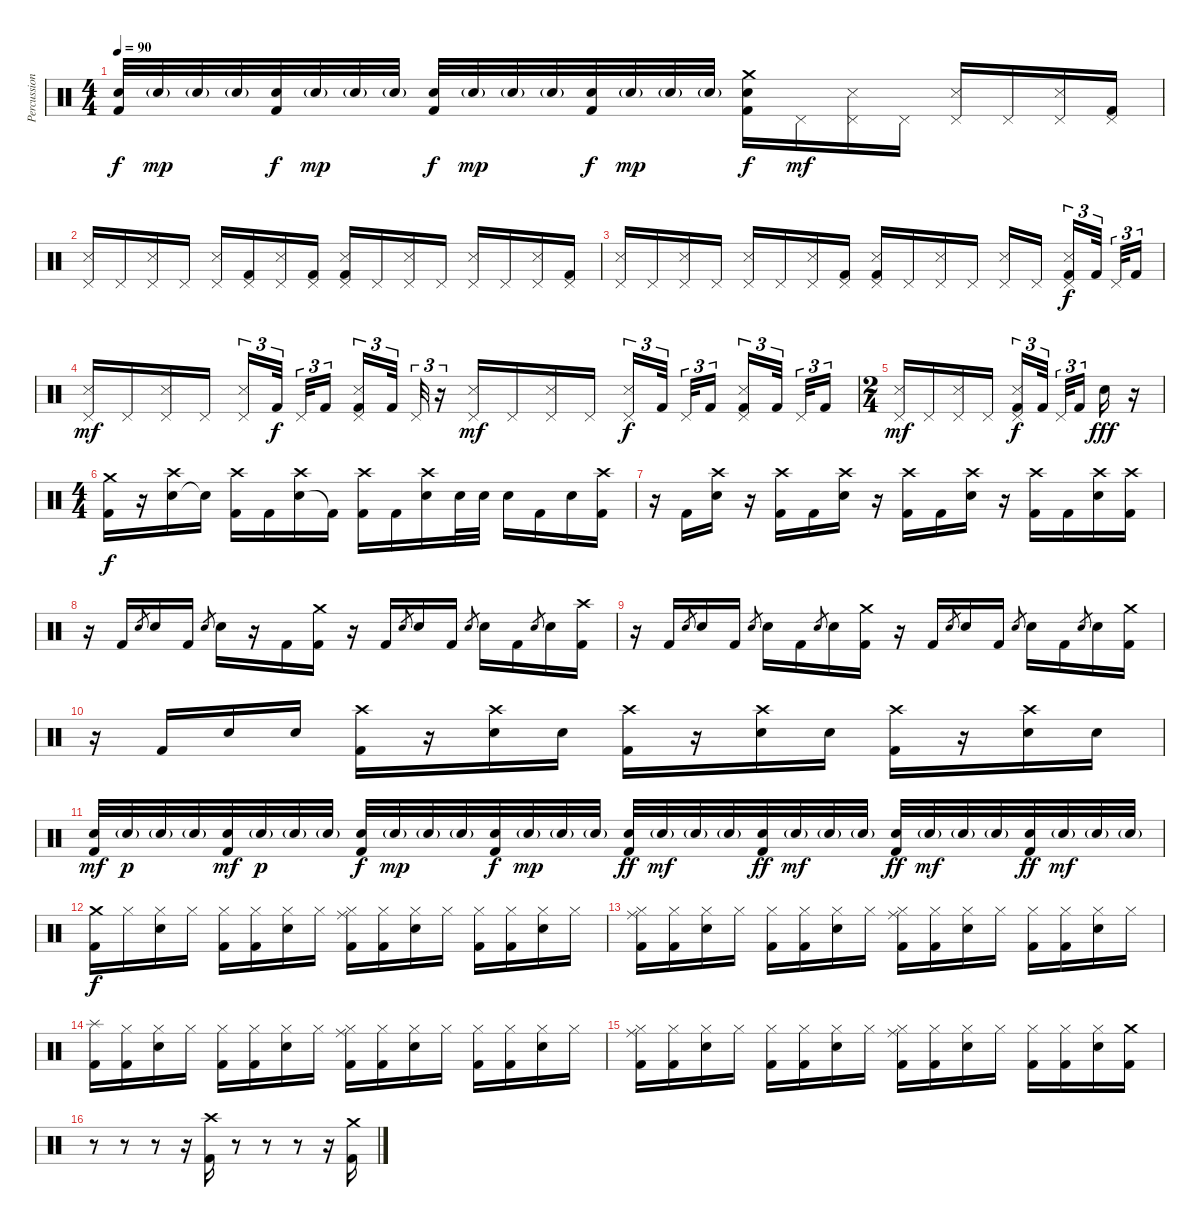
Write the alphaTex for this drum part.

\track ("Percussions" "Percussion") {instrument percussion}
\staff {score}
\articulation defaults
\ts (4 4)
\tempo 90
\clef neutral
\ks c
("Electric Snare (hit)" "Kick (hit) 2").32{dy f} "Electric Snare (hit)"{g}.32{dy mp} "Electric Snare (hit)"{g}.32 "Electric Snare (hit)"{g}.32 ("Electric Snare (hit)" "Kick (hit) 2").32{dy f} "Electric Snare (hit)"{g}.32{dy mp} "Electric Snare (hit)"{g}.32 "Electric Snare (hit)"{g}.32 ("Electric Snare (hit)" "Kick (hit) 2").32{dy f} "Electric Snare (hit)"{g}.32{dy mp} "Electric Snare (hit)"{g}.32 "Electric Snare (hit)"{g}.32 ("Electric Snare (hit)" "Kick (hit) 2").32{dy f} "Electric Snare (hit)"{g}.32{dy mp} "Electric Snare (hit)"{g}.32 "Electric Snare (hit)"{g}.32 ("Electric Snare (hit)" "Kick (hit) 2" "Crash medium (hit)").16{dy f} "Pedal Hi-Hat (hit)".16{dy mf} ("Pedal Hi-Hat (hit)" "Snare (side stick) 3").16 "Pedal Hi-Hat (hit)".16 ("Pedal Hi-Hat (hit)" "Snare (side stick) 3").16 "Pedal Hi-Hat (hit)".16 ("Pedal Hi-Hat (hit)" "Snare (side stick) 3").16 ("Kick (hit) 2" "Pedal Hi-Hat (hit)").16 |
("Pedal Hi-Hat (hit)" "Snare (side stick) 3").16 "Pedal Hi-Hat (hit)".16 ("Pedal Hi-Hat (hit)" "Snare (side stick) 3").16 "Pedal Hi-Hat (hit)".16 ("Pedal Hi-Hat (hit)" "Snare (side stick) 3").16 ("Kick (hit) 2" "Pedal Hi-Hat (hit)").16 ("Pedal Hi-Hat (hit)" "Snare (side stick) 3").16 ("Kick (hit) 2" "Pedal Hi-Hat (hit)").16 ("Kick (hit) 2" "Pedal Hi-Hat (hit)" "Snare (side stick) 3").16 "Pedal Hi-Hat (hit)".16 ("Pedal Hi-Hat (hit)" "Snare (side stick) 3").16 "Pedal Hi-Hat (hit)".16 ("Pedal Hi-Hat (hit)" "Snare (side stick) 3").16 "Pedal Hi-Hat (hit)".16 ("Pedal Hi-Hat (hit)" "Snare (side stick) 3").16 ("Kick (hit) 2" "Pedal Hi-Hat (hit)").16 |
("Pedal Hi-Hat (hit)" "Snare (side stick) 3").16 "Pedal Hi-Hat (hit)".16 ("Pedal Hi-Hat (hit)" "Snare (side stick) 3").16 "Pedal Hi-Hat (hit)".16 ("Pedal Hi-Hat (hit)" "Snare (side stick) 3").16 "Pedal Hi-Hat (hit)".16 ("Pedal Hi-Hat (hit)" "Snare (side stick) 3").16 ("Kick (hit) 2" "Pedal Hi-Hat (hit)").16 ("Kick (hit) 2" "Pedal Hi-Hat (hit)" "Snare (side stick) 3").16 "Pedal Hi-Hat (hit)".16 ("Pedal Hi-Hat (hit)" "Snare (side stick) 3").16 "Pedal Hi-Hat (hit)".16 ("Pedal Hi-Hat (hit)" "Snare (side stick) 3").16 "Pedal Hi-Hat (hit)".16 ("Kick (hit) 2" "Pedal Hi-Hat (hit)" "Snare (side stick) 3").16{tu (3 2) dy f} "Kick (hit) 2".32{tu (3 2)} "Pedal Hi-Hat (hit)".32{tu (3 2)} "Kick (hit) 2".16{tu (3 2)} |
("Pedal Hi-Hat (hit)" "Snare (side stick) 3").16{dy mf} "Pedal Hi-Hat (hit)".16 ("Pedal Hi-Hat (hit)" "Snare (side stick) 3").16 "Pedal Hi-Hat (hit)".16 ("Pedal Hi-Hat (hit)" "Snare (side stick) 3").16{tu (3 2)} "Kick (hit) 2".32{tu (3 2) dy f} "Pedal Hi-Hat (hit)".32{tu (3 2)} "Kick (hit) 2".16{tu (3 2)} ("Kick (hit) 2" "Pedal Hi-Hat (hit)" "Snare (side stick) 3").16{tu (3 2)} "Kick (hit) 2".32{tu (3 2)} "Pedal Hi-Hat (hit)".32{tu (3 2)} r.16{tu (3 2)} ("Pedal Hi-Hat (hit)" "Snare (side stick) 3").16{dy mf} "Pedal Hi-Hat (hit)".16 ("Pedal Hi-Hat (hit)" "Snare (side stick) 3").16 "Pedal Hi-Hat (hit)".16 ("Pedal Hi-Hat (hit)" "Snare (side stick) 3").16{tu (3 2) dy f} "Kick (hit) 2".32{tu (3 2)} "Pedal Hi-Hat (hit)".32{tu (3 2)} "Kick (hit) 2".16{tu (3 2)} ("Kick (hit) 2" "Pedal Hi-Hat (hit)" "Snare (side stick) 3").16{tu (3 2)} "Kick (hit) 2".32{tu (3 2)} "Pedal Hi-Hat (hit)".32{tu (3 2)} "Kick (hit) 2".16{tu (3 2)} |
\ts (2 4)
("Pedal Hi-Hat (hit)" "Snare (side stick) 3").16{dy mf} "Pedal Hi-Hat (hit)".16 ("Pedal Hi-Hat (hit)" "Snare (side stick) 3").16 "Pedal Hi-Hat (hit)".16 ("Kick (hit) 2" "Pedal Hi-Hat (hit)" "Snare (side stick) 3").16{tu (3 2) dy f} "Kick (hit) 2".32{tu (3 2)} "Pedal Hi-Hat (hit)".32{tu (3 2)} "Kick (hit) 2".16{tu (3 2)} "Electric Snare (hit)".16{dy fff} r.16 |
\ts (4 4)
\section ("" "")
("Kick (hit) 2" "Crash medium (hit)").16{dy f} r.16 ("Electric Snare (hit)" "Crash high (hit)").16 "Snare (hit)"{t}.16 ("Kick (hit) 2" "Crash high (hit)").16 "Kick (hit) 2".16 ("Electric Snare (hit)" "Crash high (hit)").16 "Kick (hit) 2"{t}.16 ("Kick (hit) 2" "Crash high (hit)").16 "Kick (hit) 2".16 ("Electric Snare (hit)" "Crash high (hit)").16 "Electric Snare (hit)".32 "Electric Snare (hit)".32 "Electric Snare (hit)".16 "Kick (hit) 2".16 "Electric Snare (hit)".16 ("Kick (hit) 2" "Crash high (hit)").16 |
r.16 "Kick (hit) 2".16 ("Electric Snare (hit)" "Crash high (hit)").16 r.16 ("Kick (hit) 2" "Crash high (hit)").16 "Kick (hit) 2".16 ("Electric Snare (hit)" "Crash high (hit)").16 r.16 ("Kick (hit) 2" "Crash high (hit)").16 "Kick (hit) 2".16 ("Electric Snare (hit)" "Crash high (hit)").16 r.16 ("Kick (hit) 2" "Crash high (hit)").16 "Kick (hit) 2".16 ("Electric Snare (hit)" "Crash high (hit)").16 ("Kick (hit) 2" "Crash high (hit)").16 |
r.16 "Kick (hit) 2".16 "Electric Snare (hit)".8{gr} "Electric Snare (hit)".16 "Kick (hit) 2".16 "Electric Snare (hit)".8{gr} "Electric Snare (hit)".16 r.16 "Kick (hit) 2".16 ("Kick (hit) 2" "Crash medium (hit)").16 r.16 "Kick (hit) 2".16 "Electric Snare (hit)".8{gr} "Electric Snare (hit)".16 "Kick (hit) 2".16 "Electric Snare (hit)".8{gr} "Electric Snare (hit)".16 "Kick (hit) 2".16 "Electric Snare (hit)".8{gr} "Electric Snare (hit)".16 ("Kick (hit) 2" "Crash high (hit)").16 |
r.16 "Kick (hit) 2".16 "Electric Snare (hit)".8{gr} "Electric Snare (hit)".16 "Kick (hit) 2".16 "Electric Snare (hit)".8{gr} "Electric Snare (hit)".16 "Kick (hit) 2".16 "Electric Snare (hit)".8{gr} "Electric Snare (hit)".16 ("Kick (hit) 2" "Crash medium (hit)").16 r.16 "Kick (hit) 2".16 "Electric Snare (hit)".8{gr} "Electric Snare (hit)".16 "Kick (hit) 2".16 "Electric Snare (hit)".8{gr} "Electric Snare (hit)".16 "Kick (hit) 2".16 "Electric Snare (hit)".8{gr} "Electric Snare (hit)".16 ("Kick (hit) 2" "Crash medium (hit)").16 |
r.16 "Kick (hit) 2".16 "Electric Snare (hit)".16 "Electric Snare (hit)".16 ("Kick (hit) 2" "Crash high (hit)").16 r.16 ("Electric Snare (hit)" "Crash high (hit)").16 "Electric Snare (hit)".16 ("Kick (hit) 2" "Crash high (hit)").16 r.16 ("Electric Snare (hit)" "Crash high (hit)").16 "Electric Snare (hit)".16 ("Kick (hit) 2" "Crash high (hit)").16 r.16 ("Electric Snare (hit)" "Crash high (hit)").16 "Electric Snare (hit)".16 |
("Electric Snare (hit)" "Kick (hit) 2").32{dy mf} "Electric Snare (hit)"{g}.32{dy p} "Electric Snare (hit)"{g}.32 "Electric Snare (hit)"{g}.32 ("Electric Snare (hit)" "Kick (hit) 2").32{dy mf} "Electric Snare (hit)"{g}.32{dy p} "Electric Snare (hit)"{g}.32 "Electric Snare (hit)"{g}.32 ("Electric Snare (hit)" "Kick (hit) 2").32{dy f} "Electric Snare (hit)"{g}.32{dy mp} "Electric Snare (hit)"{g}.32 "Electric Snare (hit)"{g}.32 ("Electric Snare (hit)" "Kick (hit) 2").32{dy f} "Electric Snare (hit)"{g}.32{dy mp} "Electric Snare (hit)"{g}.32 "Electric Snare (hit)"{g}.32 ("Electric Snare (hit)" "Kick (hit) 2").32{dy ff} "Electric Snare (hit)"{g}.32{dy mf} "Electric Snare (hit)"{g}.32 "Electric Snare (hit)"{g}.32 ("Electric Snare (hit)" "Kick (hit) 2").32{dy ff} "Electric Snare (hit)"{g}.32{dy mf} "Electric Snare (hit)"{g}.32 "Electric Snare (hit)"{g}.32 ("Electric Snare (hit)" "Kick (hit) 2").32{dy ff} "Electric Snare (hit)"{g}.32{dy mf} "Electric Snare (hit)"{g}.32 "Electric Snare (hit)"{g}.32 ("Electric Snare (hit)" "Kick (hit) 2").32{dy ff} "Electric Snare (hit)"{g}.32{dy mf} "Electric Snare (hit)"{g}.32 "Electric Snare (hit)"{g}.32 |
\section ("" "")
("Kick (hit) 2" "Crash medium (hit)").16{dy f} "Hi-Hat (closed)".16 ("Electric Snare (hit)" "Hi-Hat (closed)").16 "Hi-Hat (closed)".16 ("Kick (hit) 2" "Hi-Hat (closed)").16 ("Kick (hit) 2" "Hi-Hat (closed)").16 ("Electric Snare (hit)" "Hi-Hat (closed)").16 "Hi-Hat (closed)".16 ("Kick (hit) 2" "Hi-Hat (closed)" "Ride (middle)").16 ("Kick (hit) 2" "Hi-Hat (closed)").16 ("Electric Snare (hit)" "Hi-Hat (closed)").16 "Hi-Hat (closed)".16 ("Kick (hit) 2" "Hi-Hat (closed)").16 ("Kick (hit) 2" "Hi-Hat (closed)").16 ("Electric Snare (hit)" "Hi-Hat (closed)").16 "Hi-Hat (closed)".16 |
("Kick (hit) 2" "Hi-Hat (closed)" "Ride (middle)").16 ("Kick (hit) 2" "Hi-Hat (closed)").16 ("Electric Snare (hit)" "Hi-Hat (closed)").16 "Hi-Hat (closed)".16 ("Kick (hit) 2" "Hi-Hat (closed)").16 ("Kick (hit) 2" "Hi-Hat (closed)").16 ("Electric Snare (hit)" "Hi-Hat (closed)").16 "Hi-Hat (closed)".16 ("Kick (hit) 2" "Hi-Hat (closed)" "Ride (middle)").16 ("Kick (hit) 2" "Hi-Hat (closed)").16 ("Electric Snare (hit)" "Hi-Hat (closed)").16 "Hi-Hat (closed)".16 ("Kick (hit) 2" "Hi-Hat (closed)").16 ("Kick (hit) 2" "Hi-Hat (closed)").16 ("Electric Snare (hit)" "Hi-Hat (closed)").16 "Hi-Hat (closed)".16 |
("Kick (hit) 2" "Splash (hit)").16 ("Kick (hit) 2" "Hi-Hat (closed)").16 ("Electric Snare (hit)" "Hi-Hat (closed)").16 "Hi-Hat (closed)".16 ("Kick (hit) 2" "Hi-Hat (closed)").16 ("Kick (hit) 2" "Hi-Hat (closed)").16 ("Electric Snare (hit)" "Hi-Hat (closed)").16 "Hi-Hat (closed)".16 ("Kick (hit) 2" "Hi-Hat (closed)" "Ride (middle)").16 ("Kick (hit) 2" "Hi-Hat (closed)").16 ("Electric Snare (hit)" "Hi-Hat (closed)").16 "Hi-Hat (closed)".16 ("Kick (hit) 2" "Hi-Hat (closed)").16 ("Kick (hit) 2" "Hi-Hat (closed)").16 ("Electric Snare (hit)" "Hi-Hat (closed)").16 "Hi-Hat (closed)".16 |
("Kick (hit) 2" "Hi-Hat (closed)" "Ride (middle)").16 ("Kick (hit) 2" "Hi-Hat (closed)").16 ("Electric Snare (hit)" "Hi-Hat (closed)").16 "Hi-Hat (closed)".16 ("Kick (hit) 2" "Hi-Hat (closed)").16 ("Kick (hit) 2" "Hi-Hat (closed)").16 ("Electric Snare (hit)" "Hi-Hat (closed)").16 "Hi-Hat (closed)".16 ("Kick (hit) 2" "Hi-Hat (closed)" "Ride (middle)").16 ("Kick (hit) 2" "Hi-Hat (closed)").16 ("Electric Snare (hit)" "Hi-Hat (closed)").16 "Hi-Hat (closed)".16 ("Kick (hit) 2" "Hi-Hat (closed)").16 ("Kick (hit) 2" "Hi-Hat (closed)").16 ("Electric Snare (hit)" "Hi-Hat (closed)").16 ("Kick (hit) 2" "Crash medium (hit)").16 |
r.8 r.8 r.8 r.16 ("Kick (hit) 2" "Crash high (hit)").16 r.8 r.8 r.8 r.16 ("Kick (hit) 2" "Crash medium (hit)").16
